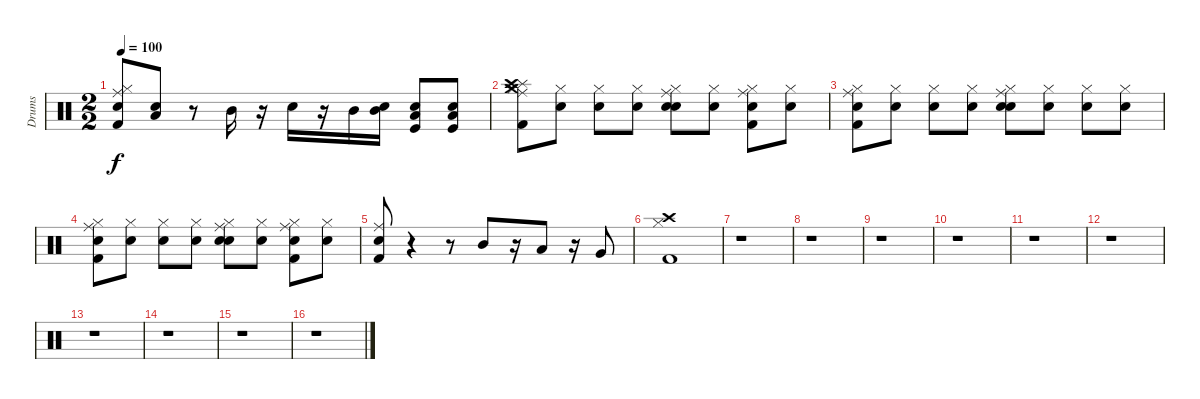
\track ("Drums" "Drums") {instrument percussion}
\staff {score}
\articulation defaults
\ts (2 2)
\tempo 100
\clef neutral
\ks c
("Snare (hit)" "Ride (middle)" "Hi-Hat (closed)" "Kick (hit) 2").8{dy f} ("Snare (hit)" "Low Tom (hit)").8 r.8 "Mid Tom (hit)".16 r.16 "Snare (hit) 2".16 r.16 "Mid Tom (hit)".16 ("Snare (hit)" "Mid Tom (hit)").16 ("Snare (hit)" "Kick (hit)" "Low Tom (hit)").8 ("Snare (hit)" "Kick (hit)" "Low Tom (hit)").8 |
("Ride (middle)" "Hi-Hat (closed)" "Kick (hit) 2" "Crash medium (hit)" "Splash (hit)" "Crash high (hit)").8 ("Snare (hit)" "Hi-Hat (closed)").8 ("Snare (hit)" "Hi-Hat (closed)").8 ("Snare (hit)" "Hi-Hat (closed)").8 ("Snare (hit)" "Ride (middle)" "Hi-Hat (closed)" "Snare (hit) 2").8 ("Snare (hit)" "Hi-Hat (closed)").8 ("Snare (hit)" "Kick (hit) 2" "Ride (middle)" "Hi-Hat (closed)").8 ("Snare (hit)" "Hi-Hat (closed)").8 |
("Snare (hit)" "Kick (hit) 2" "Ride (middle)" "Hi-Hat (closed)").8 ("Snare (hit)" "Hi-Hat (closed)").8 ("Snare (hit)" "Hi-Hat (closed)").8 ("Snare (hit)" "Hi-Hat (closed)").8 ("Snare (hit)" "Snare (hit) 2" "Ride (middle)" "Hi-Hat (closed)").8 ("Snare (hit)" "Hi-Hat (closed)").8 ("Snare (hit)" "Hi-Hat (closed)").8 ("Snare (hit)" "Hi-Hat (closed)").8 |
("Snare (hit)" "Kick (hit) 2" "Ride (middle)" "Hi-Hat (closed)").8 ("Snare (hit)" "Hi-Hat (closed)").8 ("Snare (hit)" "Hi-Hat (closed)").8 ("Snare (hit)" "Hi-Hat (closed)").8 ("Snare (hit)" "Ride (middle)" "Snare (hit) 2" "Hi-Hat (closed)").8 ("Snare (hit)" "Hi-Hat (closed)").8 ("Snare (hit)" "Ride (middle)" "Kick (hit) 2" "Hi-Hat (closed)").8 ("Snare (hit)" "Hi-Hat (closed)").8 |
("Snare (hit)" "Ride (middle)" "Kick (hit) 2").8 r.4 r.8 "Mid Tom (hit)".8 r.16 "Low Tom (hit)".8 r.16 "Very Low Tom (hit)".8 |
("Crash high (hit)" "Hi-Hat (closed)" "Kick (hit) 2").1 |
r.1 |
r.1 |
r.1 |
r.1 |
r.1 |
r.1 |
r.1 |
r.1 |
r.1 |
r.1
